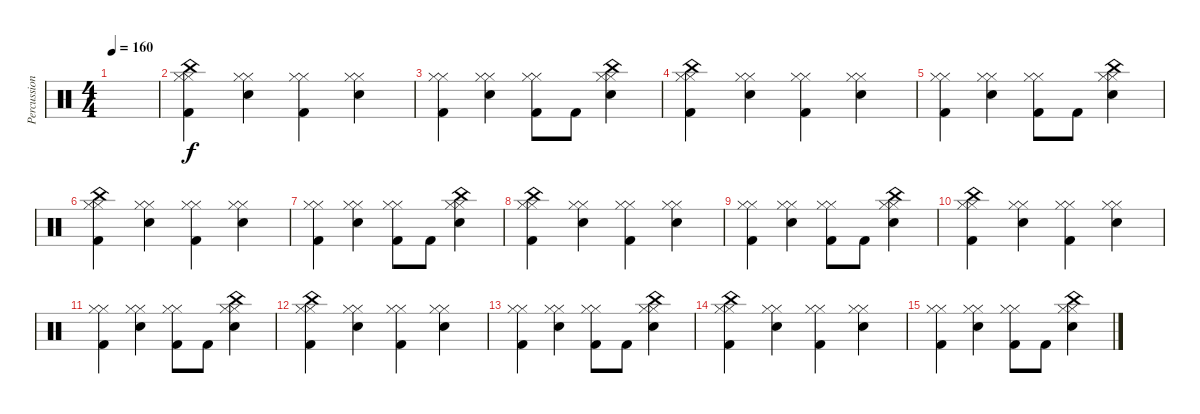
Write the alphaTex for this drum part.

\track ("Percussion" "Percussion") {instrument percussion}
\staff {score}
\articulation defaults
\ts (4 4)
\tempo 160
\clef neutral
\ks c
|
("Hi-Hat (closed)" "Hi-Hat (closed)" "China (hit)" "Kick (hit) 2").4 ("Hi-Hat (closed)" "Hi-Hat (closed)" "Snare (hit) 2").4 ("Hi-Hat (closed)" "Hi-Hat (closed)" "Kick (hit) 2").4 ("Hi-Hat (closed)" "Hi-Hat (closed)" "Snare (hit) 2").4 |
("Hi-Hat (closed)" "Hi-Hat (closed)" "Kick (hit) 2").4 ("Hi-Hat (closed)" "Hi-Hat (closed)" "Snare (hit) 2").4 ("Hi-Hat (closed)" "Hi-Hat (closed)" "Kick (hit) 2").8 "Kick (hit) 2".8 ("Hi-Hat (closed)" "Hi-Hat (closed)" "China (hit)" "Snare (hit) 2").4 |
("Hi-Hat (closed)" "Hi-Hat (closed)" "China (hit)" "Kick (hit) 2").4 ("Hi-Hat (closed)" "Hi-Hat (closed)" "Snare (hit) 2").4 ("Hi-Hat (closed)" "Hi-Hat (closed)" "Kick (hit) 2").4 ("Hi-Hat (closed)" "Hi-Hat (closed)" "Snare (hit) 2").4 |
("Hi-Hat (closed)" "Hi-Hat (closed)" "Kick (hit) 2").4 ("Hi-Hat (closed)" "Hi-Hat (closed)" "Snare (hit) 2").4 ("Hi-Hat (closed)" "Hi-Hat (closed)" "Kick (hit) 2").8 "Kick (hit) 2".8 ("Hi-Hat (closed)" "Hi-Hat (closed)" "China (hit)" "Snare (hit) 2").4 |
("Hi-Hat (closed)" "Hi-Hat (closed)" "China (hit)" "Kick (hit) 2").4 ("Hi-Hat (closed)" "Hi-Hat (closed)" "Snare (hit) 2").4 ("Hi-Hat (closed)" "Hi-Hat (closed)" "Kick (hit) 2").4 ("Hi-Hat (closed)" "Hi-Hat (closed)" "Snare (hit) 2").4 |
("Hi-Hat (closed)" "Hi-Hat (closed)" "Kick (hit) 2").4 ("Hi-Hat (closed)" "Hi-Hat (closed)" "Snare (hit) 2").4 ("Hi-Hat (closed)" "Hi-Hat (closed)" "Kick (hit) 2").8 "Kick (hit) 2".8 ("Hi-Hat (closed)" "Hi-Hat (closed)" "China (hit)" "Snare (hit) 2").4 |
("Hi-Hat (closed)" "Hi-Hat (closed)" "China (hit)" "Kick (hit) 2").4 ("Hi-Hat (closed)" "Hi-Hat (closed)" "Snare (hit) 2").4 ("Hi-Hat (closed)" "Hi-Hat (closed)" "Kick (hit) 2").4 ("Hi-Hat (closed)" "Hi-Hat (closed)" "Snare (hit) 2").4 |
("Hi-Hat (closed)" "Hi-Hat (closed)" "Kick (hit) 2").4 ("Hi-Hat (closed)" "Hi-Hat (closed)" "Snare (hit) 2").4 ("Hi-Hat (closed)" "Hi-Hat (closed)" "Kick (hit) 2").8 "Kick (hit) 2".8 ("Hi-Hat (closed)" "Hi-Hat (closed)" "China (hit)" "Snare (hit) 2").4 |
("Hi-Hat (closed)" "Hi-Hat (closed)" "China (hit)" "Kick (hit) 2").4 ("Hi-Hat (closed)" "Hi-Hat (closed)" "Snare (hit) 2").4 ("Hi-Hat (closed)" "Hi-Hat (closed)" "Kick (hit) 2").4 ("Hi-Hat (closed)" "Hi-Hat (closed)" "Snare (hit) 2").4 |
("Hi-Hat (closed)" "Hi-Hat (closed)" "Kick (hit) 2").4 ("Hi-Hat (closed)" "Hi-Hat (closed)" "Snare (hit) 2").4 ("Hi-Hat (closed)" "Hi-Hat (closed)" "Kick (hit) 2").8 "Kick (hit) 2".8 ("Hi-Hat (closed)" "Hi-Hat (closed)" "China (hit)" "Snare (hit) 2").4 |
("Hi-Hat (closed)" "Hi-Hat (closed)" "China (hit)" "Kick (hit) 2").4 ("Hi-Hat (closed)" "Hi-Hat (closed)" "Snare (hit) 2").4 ("Hi-Hat (closed)" "Hi-Hat (closed)" "Kick (hit) 2").4 ("Hi-Hat (closed)" "Hi-Hat (closed)" "Snare (hit) 2").4 |
("Hi-Hat (closed)" "Hi-Hat (closed)" "Kick (hit) 2").4 ("Hi-Hat (closed)" "Hi-Hat (closed)" "Snare (hit) 2").4 ("Hi-Hat (closed)" "Hi-Hat (closed)" "Kick (hit) 2").8 "Kick (hit) 2".8 ("Hi-Hat (closed)" "Hi-Hat (closed)" "China (hit)" "Snare (hit) 2").4 |
("Hi-Hat (closed)" "Hi-Hat (closed)" "China (hit)" "Kick (hit) 2").4 ("Hi-Hat (closed)" "Hi-Hat (closed)" "Snare (hit) 2").4 ("Hi-Hat (closed)" "Hi-Hat (closed)" "Kick (hit) 2").4 ("Hi-Hat (closed)" "Hi-Hat (closed)" "Snare (hit) 2").4 |
("Hi-Hat (closed)" "Hi-Hat (closed)" "Kick (hit) 2").4 ("Hi-Hat (closed)" "Hi-Hat (closed)" "Snare (hit) 2").4 ("Hi-Hat (closed)" "Hi-Hat (closed)" "Kick (hit) 2").8 "Kick (hit) 2".8 ("Hi-Hat (closed)" "Hi-Hat (closed)" "China (hit)" "Snare (hit) 2").4
